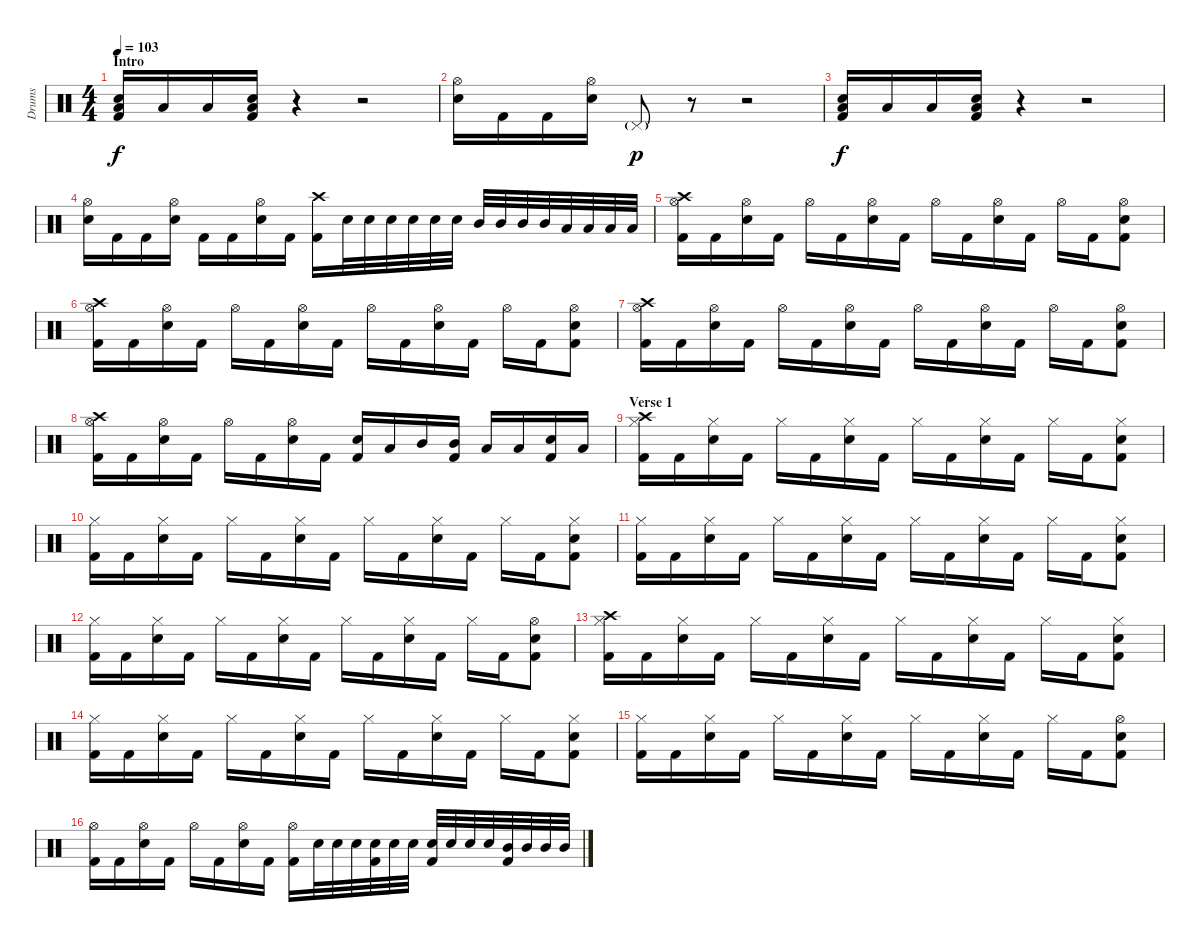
\track ("Drums" "Drums") {instrument percussion}
\staff {score}
\articulation defaults
\ts (4 4)
\section ("" "Intro")
\tempo 103
\clef neutral
\ks c
("Electric Snare (hit)" "Low Floor Tom (hit)" "Kick (hit) 2").16{dy f} "Low Floor Tom (hit)".16 "Low Floor Tom (hit)".16 ("Electric Snare (hit)" "Low Floor Tom (hit)" "Kick (hit) 2").16 r.4 r.2 |
("Hi-Hat (open)" "Electric Snare (hit)").16 "Kick (hit) 2".16 "Kick (hit) 2".16 ("Hi-Hat (open)" "Electric Snare (hit)").16 "Pedal Hi-Hat (hit)"{g}.8{dy p} r.8 r.2 |
("Electric Snare (hit)" "Low Floor Tom (hit)" "Kick (hit) 2").16{dy f} "Low Floor Tom (hit)".16 "Low Floor Tom (hit)".16 ("Electric Snare (hit)" "Low Floor Tom (hit)" "Kick (hit) 2").16 r.4 r.2 |
("Hi-Hat (open)" "Electric Snare (hit)").16 "Kick (hit) 2".16 "Kick (hit) 2".16 ("Hi-Hat (open)" "Electric Snare (hit)").16 "Kick (hit) 2".16 "Kick (hit) 2".16 ("Hi-Hat (open)" "Electric Snare (hit)").16 "Kick (hit) 2".16 ("Crash high (hit)" "Kick (hit) 2").16 "Electric Snare (hit)".32 "Electric Snare (hit)".32 "Electric Snare (hit)".32 "Electric Snare (hit)".32 "Electric Snare (hit)".32 "Electric Snare (hit)".32 "Mid Tom (hit)".32 "Mid Tom (hit)".32 "Mid Tom (hit)".32 "Mid Tom (hit)".32 "Low Tom (hit)".32 "Low Tom (hit)".32 "Low Tom (hit)".32 "Low Tom (hit)".32 |
("Crash high (hit)" "Hi-Hat (open)" "Kick (hit) 2").16 "Kick (hit) 2".16 ("Hi-Hat (open)" "Electric Snare (hit)").16 "Kick (hit) 2".16 "Hi-Hat (open)".16 "Kick (hit) 2".16 ("Hi-Hat (open)" "Electric Snare (hit)").16 "Kick (hit) 2".16 "Hi-Hat (open)".16 "Kick (hit) 2".16 ("Hi-Hat (open)" "Electric Snare (hit)").16 "Kick (hit) 2".16 "Hi-Hat (open)".16 "Kick (hit) 2".16 ("Hi-Hat (open)" "Electric Snare (hit)" "Kick (hit) 2").8 |
("Crash high (hit)" "Hi-Hat (open)" "Kick (hit) 2").16 "Kick (hit) 2".16 ("Hi-Hat (open)" "Electric Snare (hit)").16 "Kick (hit) 2".16 "Hi-Hat (open)".16 "Kick (hit) 2".16 ("Hi-Hat (open)" "Electric Snare (hit)").16 "Kick (hit) 2".16 "Hi-Hat (open)".16 "Kick (hit) 2".16 ("Hi-Hat (open)" "Electric Snare (hit)").16 "Kick (hit) 2".16 "Hi-Hat (open)".16 "Kick (hit) 2".16 ("Hi-Hat (open)" "Electric Snare (hit)" "Kick (hit) 2").8 |
("Crash high (hit)" "Hi-Hat (open)" "Kick (hit) 2").16 "Kick (hit) 2".16 ("Hi-Hat (open)" "Electric Snare (hit)").16 "Kick (hit) 2".16 "Hi-Hat (open)".16 "Kick (hit) 2".16 ("Hi-Hat (open)" "Electric Snare (hit)").16 "Kick (hit) 2".16 "Hi-Hat (open)".16 "Kick (hit) 2".16 ("Hi-Hat (open)" "Electric Snare (hit)").16 "Kick (hit) 2".16 "Hi-Hat (open)".16 "Kick (hit) 2".16 ("Hi-Hat (open)" "Electric Snare (hit)" "Kick (hit) 2").8 |
("Crash high (hit)" "Hi-Hat (open)" "Kick (hit) 2").16 "Kick (hit) 2".16 ("Hi-Hat (open)" "Electric Snare (hit)").16 "Kick (hit) 2".16 "Hi-Hat (open)".16 "Kick (hit) 2".16 ("Hi-Hat (open)" "Electric Snare (hit)").16 "Kick (hit) 2".16 ("Electric Snare (hit)" "Kick (hit) 2").16 "Low Tom (hit)".16 "Mid Tom (hit)".16 ("Mid Tom (hit)" "Kick (hit) 2").16 "Low Tom (hit)".16 "Low Tom (hit)".16 ("Electric Snare (hit)" "Kick (hit) 2").16 "Low Tom (hit)".16 |
\section ("" "Verse 1")
("Crash high (hit)" "Hi-Hat (closed)" "Kick (hit) 2").16 "Kick (hit) 2".16 ("Hi-Hat (closed)" "Electric Snare (hit)").16 "Kick (hit) 2".16 "Hi-Hat (closed)".16 "Kick (hit) 2".16 ("Hi-Hat (closed)" "Electric Snare (hit)").16 "Kick (hit) 2".16 "Hi-Hat (closed)".16 "Kick (hit) 2".16 ("Hi-Hat (closed)" "Electric Snare (hit)").16 "Kick (hit) 2".16 "Hi-Hat (closed)".16 "Kick (hit) 2".16 ("Hi-Hat (closed)" "Electric Snare (hit)" "Kick (hit) 2").8 |
("Hi-Hat (closed)" "Kick (hit) 2").16 "Kick (hit) 2".16 ("Hi-Hat (closed)" "Electric Snare (hit)").16 "Kick (hit) 2".16 "Hi-Hat (closed)".16 "Kick (hit) 2".16 ("Hi-Hat (closed)" "Electric Snare (hit)").16 "Kick (hit) 2".16 "Hi-Hat (closed)".16 "Kick (hit) 2".16 ("Hi-Hat (closed)" "Electric Snare (hit)").16 "Kick (hit) 2".16 "Hi-Hat (closed)".16 "Kick (hit) 2".16 ("Hi-Hat (closed)" "Electric Snare (hit)" "Kick (hit) 2").8 |
("Hi-Hat (closed)" "Kick (hit) 2").16 "Kick (hit) 2".16 ("Hi-Hat (closed)" "Electric Snare (hit)").16 "Kick (hit) 2".16 "Hi-Hat (closed)".16 "Kick (hit) 2".16 ("Hi-Hat (closed)" "Electric Snare (hit)").16 "Kick (hit) 2".16 "Hi-Hat (closed)".16 "Kick (hit) 2".16 ("Hi-Hat (closed)" "Electric Snare (hit)").16 "Kick (hit) 2".16 "Hi-Hat (closed)".16 "Kick (hit) 2".16 ("Hi-Hat (closed)" "Electric Snare (hit)" "Kick (hit) 2").8 |
("Hi-Hat (closed)" "Kick (hit) 2").16 "Kick (hit) 2".16 ("Hi-Hat (closed)" "Electric Snare (hit)").16 "Kick (hit) 2".16 "Hi-Hat (closed)".16 "Kick (hit) 2".16 ("Hi-Hat (closed)" "Electric Snare (hit)").16 "Kick (hit) 2".16 "Hi-Hat (closed)".16 "Kick (hit) 2".16 ("Hi-Hat (closed)" "Electric Snare (hit)").16 "Kick (hit) 2".16 "Hi-Hat (closed)".16 "Kick (hit) 2".16 ("Hi-Hat (open)" "Electric Snare (hit)" "Kick (hit) 2").8 |
("Crash high (hit)" "Hi-Hat (closed)" "Kick (hit) 2").16 "Kick (hit) 2".16 ("Hi-Hat (closed)" "Electric Snare (hit)").16 "Kick (hit) 2".16 "Hi-Hat (closed)".16 "Kick (hit) 2".16 ("Hi-Hat (closed)" "Electric Snare (hit)").16 "Kick (hit) 2".16 "Hi-Hat (closed)".16 "Kick (hit) 2".16 ("Hi-Hat (closed)" "Electric Snare (hit)").16 "Kick (hit) 2".16 "Hi-Hat (closed)".16 "Kick (hit) 2".16 ("Hi-Hat (closed)" "Electric Snare (hit)" "Kick (hit) 2").8 |
("Hi-Hat (closed)" "Kick (hit) 2").16 "Kick (hit) 2".16 ("Hi-Hat (closed)" "Electric Snare (hit)").16 "Kick (hit) 2".16 "Hi-Hat (closed)".16 "Kick (hit) 2".16 ("Hi-Hat (closed)" "Electric Snare (hit)").16 "Kick (hit) 2".16 "Hi-Hat (closed)".16 "Kick (hit) 2".16 ("Hi-Hat (closed)" "Electric Snare (hit)").16 "Kick (hit) 2".16 "Hi-Hat (closed)".16 "Kick (hit) 2".16 ("Hi-Hat (closed)" "Electric Snare (hit)" "Kick (hit) 2").8 |
("Hi-Hat (closed)" "Kick (hit) 2").16 "Kick (hit) 2".16 ("Hi-Hat (closed)" "Electric Snare (hit)").16 "Kick (hit) 2".16 "Hi-Hat (closed)".16 "Kick (hit) 2".16 ("Hi-Hat (closed)" "Electric Snare (hit)").16 "Kick (hit) 2".16 "Hi-Hat (closed)".16 "Kick (hit) 2".16 ("Hi-Hat (closed)" "Electric Snare (hit)").16 "Kick (hit) 2".16 "Hi-Hat (closed)".16 "Kick (hit) 2".16 ("Hi-Hat (open)" "Electric Snare (hit)" "Kick (hit) 2").8 |
("Hi-Hat (open)" "Kick (hit) 2").16 "Kick (hit) 2".16 ("Hi-Hat (open)" "Electric Snare (hit)").16 "Kick (hit) 2".16 "Hi-Hat (open)".16 "Kick (hit) 2".16 ("Hi-Hat (open)" "Electric Snare (hit)").16 "Kick (hit) 2".16 ("Hi-Hat (open)" "Kick (hit) 2").16 "Electric Snare (hit)".32 "Electric Snare (hit)".32 "Electric Snare (hit)".32 ("Electric Snare (hit)" "Kick (hit) 2").32 "Electric Snare (hit)".32 "Electric Snare (hit)".32 ("Electric Snare (hit)" "Kick (hit) 2").32 "Electric Snare (hit)".32 "Electric Snare (hit)".32 "Electric Snare (hit)".32 ("Mid Tom (hit)" "Kick (hit) 2").32 "Mid Tom (hit)".32 "Mid Tom (hit)".32 "Mid Tom (hit)".32
